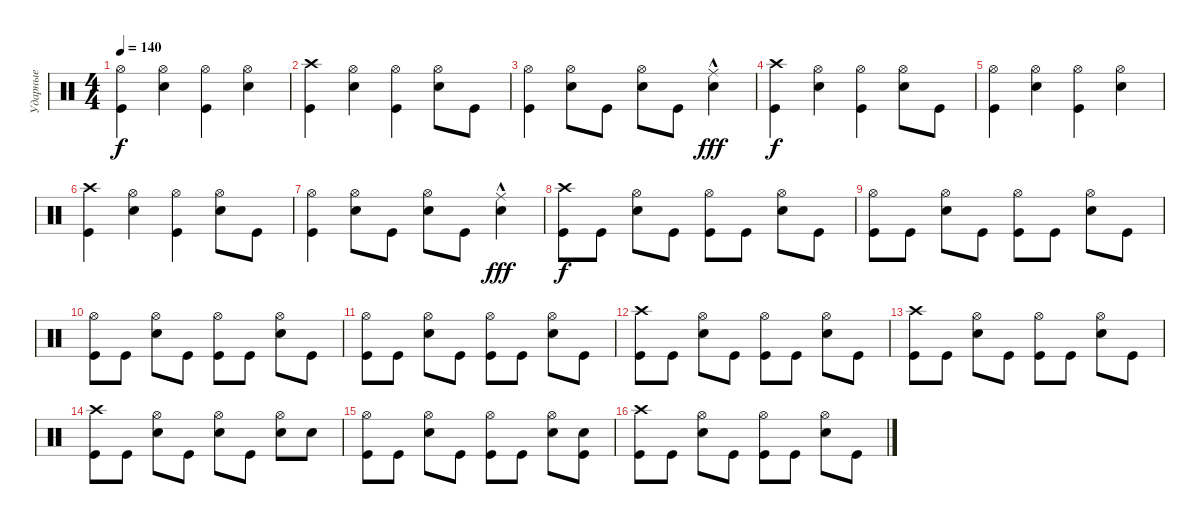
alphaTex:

\track ("Ударные" "Ударные") {instrument percussion}
\staff {score}
\articulation defaults
\ts (4 4)
\tempo 140
\clef neutral
\ks c
("Hi-Hat (open)" "Kick (hit)").4{dy f} ("Hi-Hat (open)" "Electric Snare (hit)").4 ("Hi-Hat (open)" "Kick (hit)").4 ("Hi-Hat (open)" "Electric Snare (hit)").4 |
("Crash high (hit)" "Kick (hit)").4 ("Hi-Hat (open)" "Electric Snare (hit)").4 ("Hi-Hat (open)" "Kick (hit)").4 ("Hi-Hat (open)" "Electric Snare (hit)").8 "Kick (hit)".8 |
("Hi-Hat (open)" "Kick (hit)").4 ("Hi-Hat (open)" "Electric Snare (hit)").8 "Kick (hit)".8 ("Hi-Hat (open)" "Electric Snare (hit)").8 "Kick (hit)".8 ("Ride (middle)"{hac} "Electric Snare (hit)").4{dy fff} |
("Crash high (hit)" "Kick (hit)").4{dy f} ("Hi-Hat (open)" "Electric Snare (hit)").4 ("Hi-Hat (open)" "Kick (hit)").4 ("Hi-Hat (open)" "Electric Snare (hit)").8 "Kick (hit)".8 |
("Hi-Hat (open)" "Kick (hit)").4 ("Hi-Hat (open)" "Electric Snare (hit)").4 ("Hi-Hat (open)" "Kick (hit)").4 ("Hi-Hat (open)" "Electric Snare (hit)").4 |
("Crash high (hit)" "Kick (hit)").4 ("Hi-Hat (open)" "Electric Snare (hit)").4 ("Hi-Hat (open)" "Kick (hit)").4 ("Hi-Hat (open)" "Electric Snare (hit)").8 "Kick (hit)".8 |
("Hi-Hat (open)" "Kick (hit)").4 ("Hi-Hat (open)" "Electric Snare (hit)").8 "Kick (hit)".8 ("Hi-Hat (open)" "Electric Snare (hit)").8 "Kick (hit)".8 ("Ride (middle)"{hac} "Electric Snare (hit)").4{dy fff} |
("Crash high (hit)" "Kick (hit)").8{dy f} "Kick (hit)".8 ("Hi-Hat (open)" "Electric Snare (hit)").8 "Kick (hit)".8 ("Hi-Hat (open)" "Kick (hit)").8 "Kick (hit)".8 ("Hi-Hat (open)" "Electric Snare (hit)").8 "Kick (hit)".8 |
("Hi-Hat (open)" "Kick (hit)").8 "Kick (hit)".8 ("Hi-Hat (open)" "Electric Snare (hit)").8 "Kick (hit)".8 ("Hi-Hat (open)" "Kick (hit)").8 "Kick (hit)".8 ("Hi-Hat (open)" "Electric Snare (hit)").8 "Kick (hit)".8 |
("Hi-Hat (open)" "Kick (hit)").8 "Kick (hit)".8 ("Hi-Hat (open)" "Electric Snare (hit)").8 "Kick (hit)".8 ("Hi-Hat (open)" "Kick (hit)").8 "Kick (hit)".8 ("Hi-Hat (open)" "Electric Snare (hit)").8 "Kick (hit)".8 |
("Hi-Hat (open)" "Kick (hit)").8 "Kick (hit)".8 ("Hi-Hat (open)" "Electric Snare (hit)").8 "Kick (hit)".8 ("Hi-Hat (open)" "Kick (hit)").8 "Kick (hit)".8 ("Hi-Hat (open)" "Electric Snare (hit)").8 "Kick (hit)".8 |
("Crash high (hit)" "Kick (hit)").8 "Kick (hit)".8 ("Hi-Hat (open)" "Electric Snare (hit)").8 "Kick (hit)".8 ("Hi-Hat (open)" "Kick (hit)").8 "Kick (hit)".8 ("Hi-Hat (open)" "Electric Snare (hit)").8 "Kick (hit)".8 |
("Crash high (hit)" "Kick (hit)").8 "Kick (hit)".8 ("Hi-Hat (open)" "Electric Snare (hit)").8 "Kick (hit)".8 ("Hi-Hat (open)" "Kick (hit)").8 "Kick (hit)".8 ("Hi-Hat (open)" "Electric Snare (hit)").8 "Kick (hit)".8 |
("Crash high (hit)" "Kick (hit)").8 "Kick (hit)".8 ("Hi-Hat (open)" "Electric Snare (hit)").8 "Kick (hit)".8 ("Hi-Hat (open)" "Electric Snare (hit)").8 "Kick (hit)".8 ("Hi-Hat (open)" "Electric Snare (hit)").8 "Electric Snare (hit)".8 |
("Hi-Hat (open)" "Kick (hit)").8 "Kick (hit)".8 ("Hi-Hat (open)" "Electric Snare (hit)").8 "Kick (hit)".8 ("Hi-Hat (open)" "Kick (hit)").8 "Kick (hit)".8 ("Hi-Hat (open)" "Electric Snare (hit)").8 ("Electric Snare (hit)" "Kick (hit)").8 |
("Crash high (hit)" "Kick (hit)").8 "Kick (hit)".8 ("Hi-Hat (open)" "Electric Snare (hit)").8 "Kick (hit)".8 ("Hi-Hat (open)" "Kick (hit)").8 "Kick (hit)".8 ("Hi-Hat (open)" "Electric Snare (hit)").8 "Kick (hit)".8
